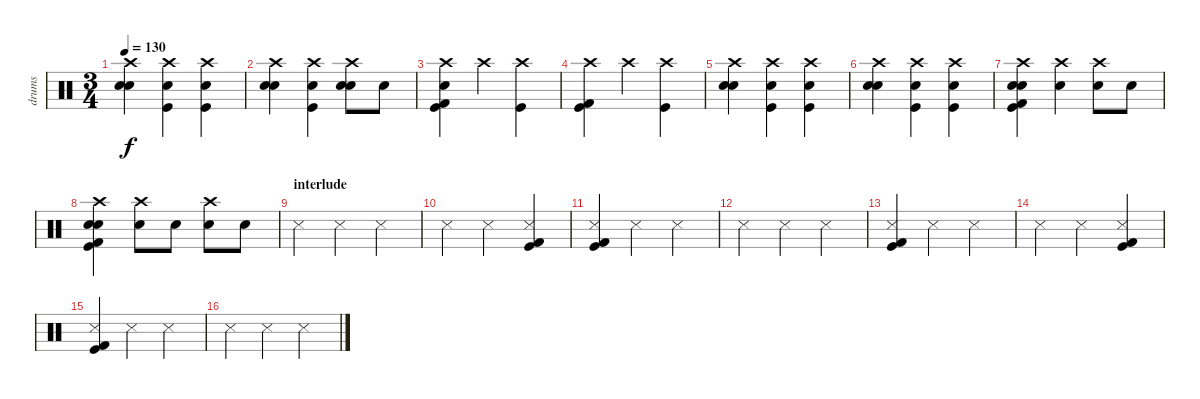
\track ("drums" "drums") {instrument percussion}
\staff {score}
\articulation defaults
\ts (3 4)
\tempo 130
\clef neutral
\ks c
("Crash high (hit)" "Snare (hit) 2" "Electric Snare (hit)").4{dy f} ("Crash high (hit)" "Snare (hit) 2" "Kick (hit)").4 ("Crash high (hit)" "Snare (hit) 2" "Kick (hit)").4 |
("Crash high (hit)" "Snare (hit) 2" "Electric Snare (hit)").4 ("Crash high (hit)" "Snare (hit) 2" "Kick (hit)").4 ("Crash high (hit)" "Snare (hit) 2" "Electric Snare (hit)").8 "Snare (hit) 2".8 |
("Crash high (hit)" "Snare (hit) 2" "Kick (hit) 2" "Kick (hit)").4 "Crash high (hit)".4 ("Crash high (hit)" "Kick (hit)").4 |
("Crash high (hit)" "Kick (hit) 2" "Kick (hit)").4 "Crash high (hit)".4 ("Crash high (hit)" "Kick (hit)").4 |
("Crash high (hit)" "Snare (hit) 2" "Electric Snare (hit)").4 ("Crash high (hit)" "Snare (hit) 2" "Kick (hit)").4 ("Crash high (hit)" "Snare (hit) 2" "Kick (hit)").4 |
("Crash high (hit)" "Snare (hit) 2" "Electric Snare (hit)").4 ("Crash high (hit)" "Snare (hit) 2" "Kick (hit)").4 ("Crash high (hit)" "Snare (hit) 2" "Kick (hit)").4 |
("Crash high (hit)" "Electric Snare (hit)" "Snare (hit) 2" "Kick (hit) 2" "Kick (hit)").4 ("Crash high (hit)" "Snare (hit) 2").4 ("Crash high (hit)" "Snare (hit) 2").8 "Snare (hit) 2".8 |
("Crash high (hit)" "Electric Snare (hit)" "Snare (hit) 2" "Kick (hit) 2" "Kick (hit)").4 ("Crash high (hit)" "Electric Snare (hit)").8 "Electric Snare (hit)".8 ("Crash high (hit)" "Electric Snare (hit)").8 "Electric Snare (hit)".8 |
\section ("" "interlude")
"Metronome (hit)".4 "Snare (side stick) 3".4 "Snare (side stick) 3".4 |
"Metronome (hit)".4 "Snare (side stick) 3".4 ("Snare (side stick) 3" "Kick (hit) 2" "Kick (hit)").4 |
("Metronome (hit)" "Kick (hit) 2" "Kick (hit)").4 "Snare (side stick) 3".4 "Snare (side stick) 3".4 |
"Metronome (hit)".4 "Snare (side stick) 3".4 "Snare (side stick) 3".4 |
("Metronome (hit)" "Kick (hit) 2" "Kick (hit)").4 "Snare (side stick) 3".4 "Snare (side stick) 3".4 |
"Metronome (hit)".4 "Snare (side stick) 3".4 ("Snare (side stick) 3" "Kick (hit) 2" "Kick (hit)").4 |
("Metronome (hit)" "Kick (hit) 2" "Kick (hit)").4 "Snare (side stick) 3".4 "Snare (side stick) 3".4 |
"Metronome (hit)".4 "Snare (side stick) 3".4 "Snare (side stick) 3".4
